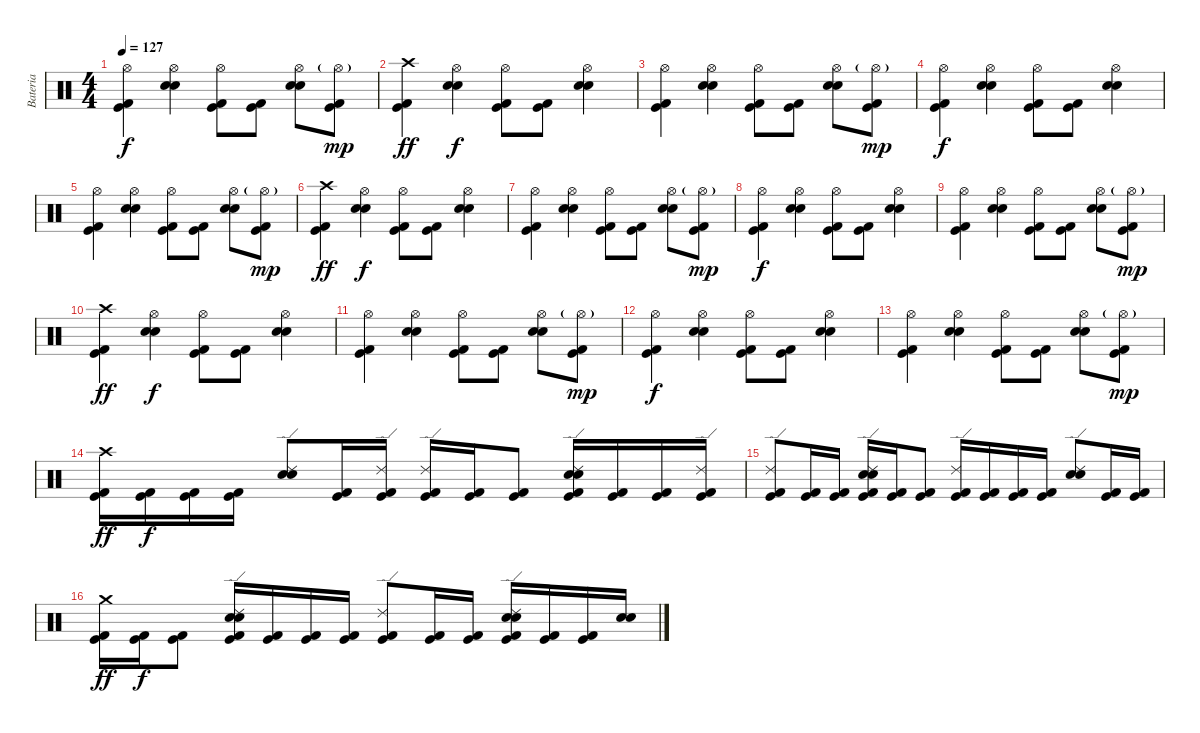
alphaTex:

\track ("Bateria" "Bateria") {instrument percussion}
\staff {score}
\articulation defaults
\ts (4 4)
\tempo 127
\clef neutral
\ks c
("Hi-Hat (open)" "Kick (hit) 2" "Kick (hit)").4{dy f} ("Hi-Hat (open)" "Electric Snare (hit)" "Snare (hit) 2").4 ("Hi-Hat (open)" "Kick (hit) 2" "Kick (hit)").8 ("Kick (hit) 2" "Kick (hit)").8 ("Hi-Hat (open)" "Electric Snare (hit)" "Snare (hit) 2").8 ("Hi-Hat (open)"{g} "Kick (hit) 2" "Kick (hit)").8{dy mp} |
("Crash high (hit)" "Kick (hit) 2" "Kick (hit)").4{dy ff} ("Hi-Hat (open)" "Electric Snare (hit)" "Snare (hit) 2").4{dy f} ("Hi-Hat (open)" "Kick (hit) 2" "Kick (hit)").8 ("Kick (hit) 2" "Kick (hit)").8 ("Hi-Hat (open)" "Electric Snare (hit)" "Snare (hit) 2").4 |
("Hi-Hat (open)" "Kick (hit) 2" "Kick (hit)").4 ("Hi-Hat (open)" "Electric Snare (hit)" "Snare (hit) 2").4 ("Hi-Hat (open)" "Kick (hit) 2" "Kick (hit)").8 ("Kick (hit) 2" "Kick (hit)").8 ("Hi-Hat (open)" "Electric Snare (hit)" "Snare (hit) 2").8 ("Hi-Hat (open)"{g} "Kick (hit) 2" "Kick (hit)").8{dy mp} |
("Hi-Hat (open)" "Kick (hit) 2" "Kick (hit)").4{dy f} ("Hi-Hat (open)" "Electric Snare (hit)" "Snare (hit) 2").4 ("Hi-Hat (open)" "Kick (hit) 2" "Kick (hit)").8 ("Kick (hit) 2" "Kick (hit)").8 ("Hi-Hat (open)" "Electric Snare (hit)" "Snare (hit) 2").4 |
("Hi-Hat (open)" "Kick (hit) 2" "Kick (hit)").4 ("Hi-Hat (open)" "Electric Snare (hit)" "Snare (hit) 2").4 ("Hi-Hat (open)" "Kick (hit) 2" "Kick (hit)").8 ("Kick (hit) 2" "Kick (hit)").8 ("Hi-Hat (open)" "Electric Snare (hit)" "Snare (hit) 2").8 ("Hi-Hat (open)"{g} "Kick (hit) 2" "Kick (hit)").8{dy mp} |
("Crash high (hit)" "Kick (hit) 2" "Kick (hit)").4{dy ff} ("Hi-Hat (open)" "Electric Snare (hit)" "Snare (hit) 2").4{dy f} ("Hi-Hat (open)" "Kick (hit) 2" "Kick (hit)").8 ("Kick (hit) 2" "Kick (hit)").8 ("Hi-Hat (open)" "Electric Snare (hit)" "Snare (hit) 2").4 |
("Hi-Hat (open)" "Kick (hit) 2" "Kick (hit)").4 ("Hi-Hat (open)" "Electric Snare (hit)" "Snare (hit) 2").4 ("Hi-Hat (open)" "Kick (hit) 2" "Kick (hit)").8 ("Kick (hit) 2" "Kick (hit)").8 ("Hi-Hat (open)" "Electric Snare (hit)" "Snare (hit) 2").8 ("Hi-Hat (open)"{g} "Kick (hit) 2" "Kick (hit)").8{dy mp} |
("Hi-Hat (open)" "Kick (hit) 2" "Kick (hit)").4{dy f} ("Hi-Hat (open)" "Electric Snare (hit)" "Snare (hit) 2").4 ("Hi-Hat (open)" "Kick (hit) 2" "Kick (hit)").8 ("Kick (hit) 2" "Kick (hit)").8 ("Hi-Hat (open)" "Electric Snare (hit)" "Snare (hit) 2").4 |
("Hi-Hat (open)" "Kick (hit) 2" "Kick (hit)").4 ("Hi-Hat (open)" "Electric Snare (hit)" "Snare (hit) 2").4 ("Hi-Hat (open)" "Kick (hit) 2" "Kick (hit)").8 ("Kick (hit) 2" "Kick (hit)").8 ("Hi-Hat (open)" "Electric Snare (hit)" "Snare (hit) 2").8 ("Hi-Hat (open)"{g} "Kick (hit) 2" "Kick (hit)").8{dy mp} |
("Crash high (hit)" "Kick (hit) 2" "Kick (hit)").4{dy ff} ("Hi-Hat (open)" "Electric Snare (hit)" "Snare (hit) 2").4{dy f} ("Hi-Hat (open)" "Kick (hit) 2" "Kick (hit)").8 ("Kick (hit) 2" "Kick (hit)").8 ("Hi-Hat (open)" "Electric Snare (hit)" "Snare (hit) 2").4 |
("Hi-Hat (open)" "Kick (hit) 2" "Kick (hit)").4 ("Hi-Hat (open)" "Electric Snare (hit)" "Snare (hit) 2").4 ("Hi-Hat (open)" "Kick (hit) 2" "Kick (hit)").8 ("Kick (hit) 2" "Kick (hit)").8 ("Hi-Hat (open)" "Electric Snare (hit)" "Snare (hit) 2").8 ("Hi-Hat (open)"{g} "Kick (hit) 2" "Kick (hit)").8{dy mp} |
("Hi-Hat (open)" "Kick (hit) 2" "Kick (hit)").4{dy f} ("Hi-Hat (open)" "Electric Snare (hit)" "Snare (hit) 2").4 ("Hi-Hat (open)" "Kick (hit) 2" "Kick (hit)").8 ("Kick (hit) 2" "Kick (hit)").8 ("Hi-Hat (open)" "Electric Snare (hit)" "Snare (hit) 2").4 |
("Hi-Hat (open)" "Kick (hit) 2" "Kick (hit)").4 ("Hi-Hat (open)" "Electric Snare (hit)" "Snare (hit) 2").4 ("Hi-Hat (open)" "Kick (hit) 2" "Kick (hit)").8 ("Kick (hit) 2" "Kick (hit)").8 ("Hi-Hat (open)" "Electric Snare (hit)" "Snare (hit) 2").8 ("Hi-Hat (open)"{g} "Kick (hit) 2" "Kick (hit)").8{dy mp} |
("Crash high (hit)" "Kick (hit) 2" "Kick (hit)").16{dy ff} ("Kick (hit) 2" "Kick (hit)").16{dy f} ("Kick (hit) 2" "Kick (hit)").16 ("Kick (hit) 2" "Kick (hit)").16 ("Ride (edge) 2" "Electric Snare (hit)" "Snare (hit) 2").8 ("Kick (hit) 2" "Kick (hit)").16 ("Ride (edge) 2" "Kick (hit) 2" "Kick (hit)").16 ("Ride (edge) 2" "Kick (hit) 2" "Kick (hit)").16 ("Kick (hit) 2" "Kick (hit)").16 ("Kick (hit) 2" "Kick (hit)").8 ("Ride (edge) 2" "Electric Snare (hit)" "Snare (hit) 2" "Kick (hit) 2" "Kick (hit)").16 ("Kick (hit) 2" "Kick (hit)").16 ("Kick (hit) 2" "Kick (hit)").16 ("Ride (edge) 2" "Kick (hit) 2" "Kick (hit)").16 |
("Ride (edge) 2" "Kick (hit) 2" "Kick (hit)").8 ("Kick (hit) 2" "Kick (hit)").16 ("Kick (hit) 2" "Kick (hit)").16 ("Ride (edge) 2" "Electric Snare (hit)" "Snare (hit) 2" "Kick (hit) 2" "Kick (hit)").16 ("Kick (hit) 2" "Kick (hit)").16 ("Kick (hit) 2" "Kick (hit)").8 ("Ride (edge) 2" "Kick (hit) 2" "Kick (hit)").16 ("Kick (hit) 2" "Kick (hit)").16 ("Kick (hit) 2" "Kick (hit)").16 ("Kick (hit) 2" "Kick (hit)").16 ("Ride (edge) 2" "Electric Snare (hit)" "Snare (hit) 2").8 ("Kick (hit) 2" "Kick (hit)").16 ("Kick (hit) 2" "Kick (hit)").16 |
("Crash medium (hit)" "Kick (hit) 2" "Kick (hit)").16{dy ff} ("Kick (hit) 2" "Kick (hit)").16{dy f} ("Kick (hit) 2" "Kick (hit)").8 ("Ride (edge) 2" "Electric Snare (hit)" "Snare (hit) 2" "Kick (hit) 2" "Kick (hit)").16 ("Kick (hit) 2" "Kick (hit)").16 ("Kick (hit) 2" "Kick (hit)").16 ("Kick (hit) 2" "Kick (hit)").16 ("Ride (edge) 2" "Kick (hit) 2" "Kick (hit)").8 ("Kick (hit) 2" "Kick (hit)").16 ("Kick (hit) 2" "Kick (hit)").16 ("Ride (edge) 2" "Electric Snare (hit)" "Snare (hit) 2" "Kick (hit) 2" "Kick (hit)").16 ("Kick (hit) 2" "Kick (hit)").16 ("Kick (hit) 2" "Kick (hit)").16 ("Electric Snare (hit)" "Snare (hit) 2").16
